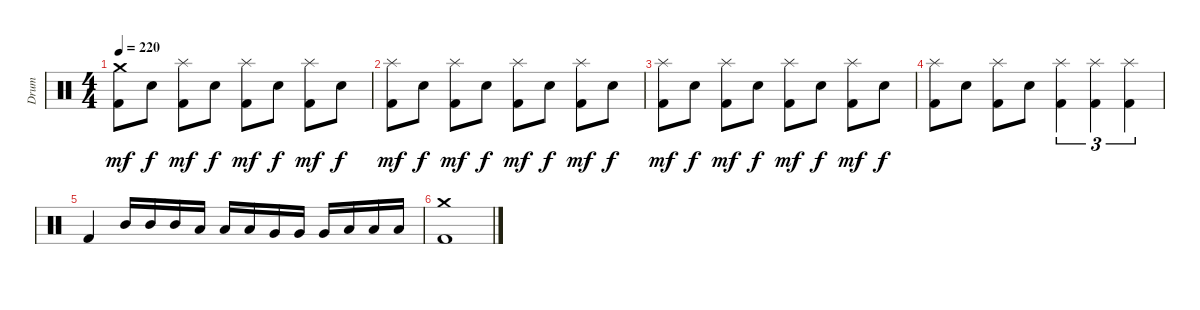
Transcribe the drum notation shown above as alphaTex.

\track ("Drum" "Drum") {instrument percussion}
\staff {score}
\articulation defaults
\ts (4 4)
\tempo 220
\clef neutral
\ks c
("Crash medium (hit)" "Kick (hit) 2").8{dy mf} "Electric Snare (hit)".8{dy f} ("Splash (hit)" "Kick (hit) 2").8{dy mf} "Electric Snare (hit)".8{dy f} ("Splash (hit)" "Kick (hit) 2").8{dy mf} "Electric Snare (hit)".8{dy f} ("Splash (hit)" "Kick (hit) 2").8{dy mf} "Electric Snare (hit)".8{dy f} |
("Splash (hit)" "Kick (hit) 2").8{dy mf} "Electric Snare (hit)".8{dy f} ("Splash (hit)" "Kick (hit) 2").8{dy mf} "Electric Snare (hit)".8{dy f} ("Splash (hit)" "Kick (hit) 2").8{dy mf} "Electric Snare (hit)".8{dy f} ("Splash (hit)" "Kick (hit) 2").8{dy mf} "Electric Snare (hit)".8{dy f} |
("Splash (hit)" "Kick (hit) 2").8{dy mf} "Electric Snare (hit)".8{dy f} ("Splash (hit)" "Kick (hit) 2").8{dy mf} "Electric Snare (hit)".8{dy f} ("Splash (hit)" "Kick (hit) 2").8{dy mf} "Electric Snare (hit)".8{dy f} ("Splash (hit)" "Kick (hit) 2").8{dy mf} "Electric Snare (hit)".8{dy f} |
("Splash (hit)" "Kick (hit) 2").8 "Electric Snare (hit)".8 ("Splash (hit)" "Kick (hit) 2").8 "Electric Snare (hit)".8 ("Splash (hit)" "Kick (hit) 2").4{tu (3 2)} ("Splash (hit)" "Kick (hit) 2").4{tu (3 2)} ("Splash (hit)" "Kick (hit) 2").4{tu (3 2)} |
"Kick (hit) 2".4 "Mid Tom (hit)".16 "Mid Tom (hit)".16 "Mid Tom (hit)".16 "Low Tom (hit)".16 "Low Tom (hit)".16 "Low Tom (hit)".16 "Very Low Tom (hit)".16 "Very Low Tom (hit)".16 "Very Low Tom (hit)".16 "Low Floor Tom (hit)".16 "Low Floor Tom (hit)".16 "Low Floor Tom (hit)".16 |
("Crash medium (hit)" "Kick (hit) 2").1
